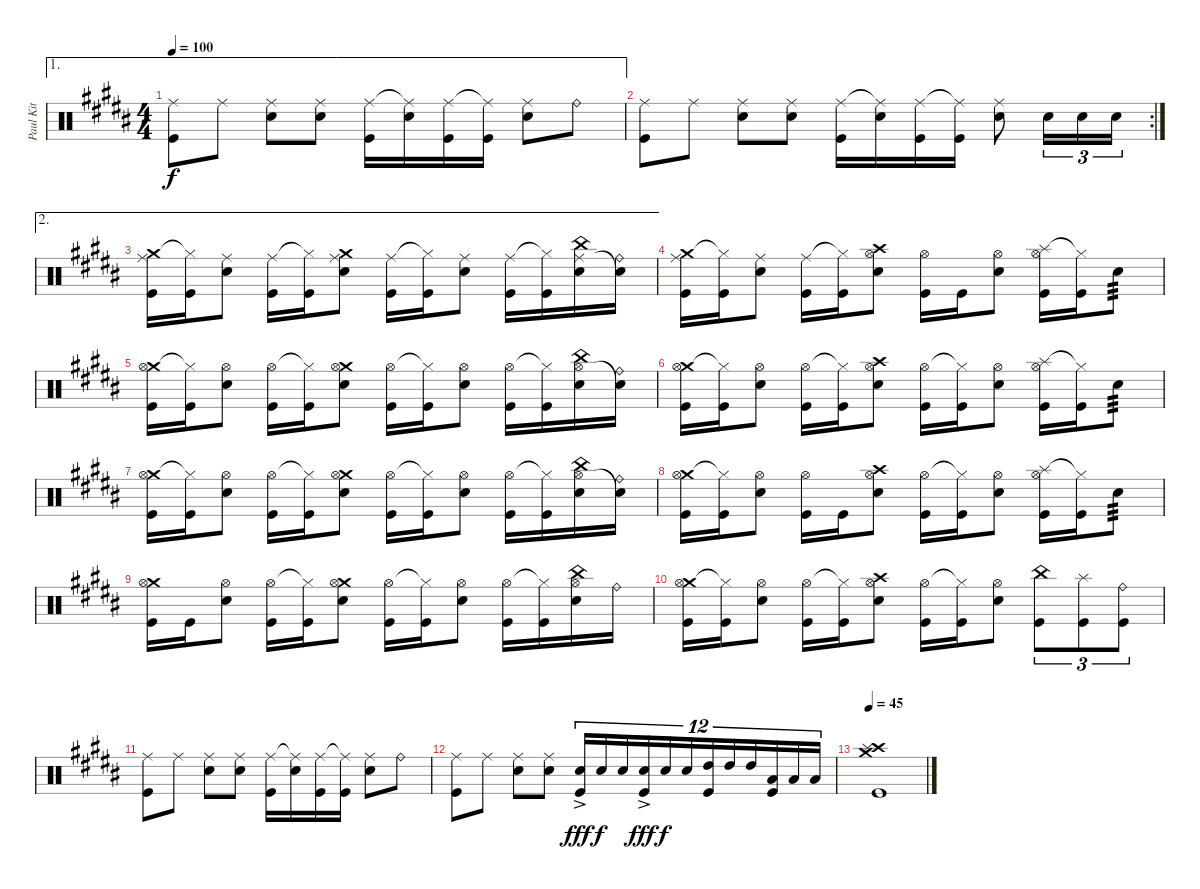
\track ("Paul Kit" "Paul Kit") {instrument percussion}
\staff {score}
\articulation defaults
\ae 1
\ts (4 4)
\tempo 100
\clef neutral
\ks b
("Ride (middle)" "Kick (hit)").8{dy f} "Ride (middle)".8 ("Ride (middle)" "Snare (hit) 2").8 ("Ride (middle)" "Snare (hit) 2").8 ("Ride (middle)" "Kick (hit)").16 ("Ride (middle)"{t} "Snare (hit) 2").16 ("Ride (middle)" "Kick (hit)").16 ("Ride (middle)"{t} "Kick (hit)").16 ("Ride (middle)" "Snare (hit) 2").8 "Ride (bell)".8 |
\rc 2
("Ride (middle)" "Kick (hit)").8 "Ride (middle)".8 ("Ride (middle)" "Snare (hit) 2").8 ("Ride (middle)" "Snare (hit) 2").8 ("Ride (middle)" "Kick (hit)").16 ("Ride (middle)"{t} "Snare (hit) 2").16 ("Ride (middle)" "Kick (hit)").16 ("Ride (middle)"{t} "Kick (hit)").16 ("Ride (middle)" "Snare (hit) 2").8 "Snare (hit) 2".16{tu (3 2)} "Snare (hit) 2".16{tu (3 2)} "Snare (hit) 2".16{tu (3 2)} |
\ae 2
("Crash medium (hit)" "Ride (middle)" "Kick (hit)").16 ("Hi-Hat (closed)"{t} "Kick (hit)").16 ("Ride (middle)" "Snare (hit) 2").8 ("Ride (middle)" "Kick (hit)").16 ("Hi-Hat (closed)"{t} "Kick (hit)").16 ("Crash medium (hit)" "Ride (middle)" "Snare (hit) 2").8 ("Ride (middle)" "Kick (hit)").16 ("Hi-Hat (closed)"{t} "Kick (hit)").16 ("Ride (middle)" "Snare (hit) 2").8 ("Ride (middle)" "Kick (hit)").16 ("Hi-Hat (closed)"{t} "Kick (hit)").16 ("China (hit)" "Ride (middle)" "Snare (hit) 2").16 ("Ride (bell)" "Snare (hit) 2"{t}).16 |
("Crash medium (hit)" "Ride (middle)" "Kick (hit)").16 ("Hi-Hat (closed)"{t} "Kick (hit)").16 ("Ride (middle)" "Snare (hit) 2").8 ("Ride (middle)" "Kick (hit)").16 ("Hi-Hat (closed)"{t} "Kick (hit)").16 ("Crash high (hit)" "Hi-Hat (open)" "Snare (hit) 2").8 ("Hi-Hat (open)" "Kick (hit)").16 "Kick (hit)".16 ("Hi-Hat (open)" "Snare (hit) 2").8 ("Splash (hit)" "Hi-Hat (open)" "Kick (hit)").16 ("Hi-Hat (closed)"{t} "Kick (hit)").16 "Snare (hit) 2".8{tp 3} |
("Crash medium (hit)" "Hi-Hat (open)" "Kick (hit)").16 ("Hi-Hat (closed)"{t} "Kick (hit)").16 ("Hi-Hat (open)" "Snare (hit) 2").8 ("Hi-Hat (open)" "Kick (hit)").16 ("Hi-Hat (closed)"{t} "Kick (hit)").16 ("Crash medium (hit)" "Hi-Hat (open)" "Snare (hit) 2").8 ("Hi-Hat (open)" "Kick (hit)").16 ("Hi-Hat (closed)"{t} "Kick (hit)").16 ("Hi-Hat (open)" "Snare (hit) 2").8 ("Hi-Hat (open)" "Kick (hit)").16 ("Hi-Hat (closed)"{t} "Kick (hit)").16 ("China (hit)" "Hi-Hat (open)" "Snare (hit) 2").16 ("Ride (bell)" "Snare (hit) 2"{t}).16 |
("Crash medium (hit)" "Hi-Hat (open)" "Kick (hit)").16 ("Hi-Hat (closed)"{t} "Kick (hit)").16 ("Hi-Hat (open)" "Snare (hit) 2").8 ("Hi-Hat (open)" "Kick (hit)").16 ("Hi-Hat (closed)"{t} "Kick (hit)").16 ("Crash high (hit)" "Hi-Hat (open)" "Snare (hit) 2").8 ("Hi-Hat (open)" "Kick (hit)").16 ("Hi-Hat (closed)"{t} "Kick (hit)").16 ("Hi-Hat (open)" "Snare (hit) 2").8 ("Splash (hit)" "Hi-Hat (open)" "Kick (hit)").16 ("Hi-Hat (closed)"{t} "Kick (hit)").16 "Snare (hit) 2".8{tp 3} |
("Crash medium (hit)" "Hi-Hat (open)" "Kick (hit)").16 ("Hi-Hat (closed)"{t} "Kick (hit)").16 ("Hi-Hat (open)" "Snare (hit) 2").8 ("Hi-Hat (open)" "Kick (hit)").16 ("Hi-Hat (closed)"{t} "Kick (hit)").16 ("Crash medium (hit)" "Hi-Hat (open)" "Snare (hit) 2").8 ("Hi-Hat (open)" "Kick (hit)").16 ("Hi-Hat (closed)"{t} "Kick (hit)").16 ("Hi-Hat (open)" "Snare (hit) 2").8 ("Hi-Hat (open)" "Kick (hit)").16 ("Hi-Hat (closed)"{t} "Kick (hit)").16 ("China (hit)" "Hi-Hat (open)" "Snare (hit) 2").16 ("Ride (bell)" "Snare (hit) 2"{t}).16 |
("Crash medium (hit)" "Hi-Hat (open)" "Kick (hit)").16 ("Hi-Hat (closed)"{t} "Kick (hit)").16 ("Hi-Hat (open)" "Snare (hit) 2").8 ("Hi-Hat (open)" "Kick (hit)").16 "Kick (hit)".16 ("Crash high (hit)" "Hi-Hat (open)" "Snare (hit) 2").8 ("Hi-Hat (open)" "Kick (hit)").16 ("Hi-Hat (closed)"{t} "Kick (hit)").16 ("Hi-Hat (open)" "Snare (hit) 2").8 ("Splash (hit)" "Hi-Hat (open)" "Kick (hit)").16 ("Hi-Hat (closed)"{t} "Kick (hit)").16 "Snare (hit) 2".8{tp 3} |
("Crash medium (hit)" "Hi-Hat (open)" "Kick (hit)").16 "Kick (hit)".16 ("Hi-Hat (open)" "Snare (hit) 2").8 ("Hi-Hat (open)" "Kick (hit)").16 ("Hi-Hat (closed)"{t} "Kick (hit)").16 ("Crash medium (hit)" "Hi-Hat (open)" "Snare (hit) 2").8 ("Hi-Hat (open)" "Kick (hit)").16 ("Hi-Hat (closed)"{t} "Kick (hit)").16 ("Hi-Hat (open)" "Snare (hit) 2").8 ("Hi-Hat (open)" "Kick (hit)").16 ("Hi-Hat (closed)"{t} "Kick (hit)").16 ("China (hit)" "Hi-Hat (open)" "Snare (hit) 2").16 "Ride (bell)".16 |
("Crash medium (hit)" "Hi-Hat (open)" "Kick (hit)").16 ("Hi-Hat (closed)"{t} "Kick (hit)").16 ("Hi-Hat (open)" "Snare (hit) 2").8 ("Hi-Hat (open)" "Kick (hit)").16 ("Hi-Hat (closed)"{t} "Kick (hit)").16 ("Crash high (hit)" "Hi-Hat (open)" "Snare (hit) 2").8 ("Hi-Hat (open)" "Kick (hit)").16 ("Hi-Hat (closed)"{t} "Kick (hit)").16 ("Hi-Hat (open)" "Snare (hit) 2").8 ("China (hit)" "Kick (hit)").8{tu (3 2)} ("Splash (hit)" "Kick (hit)").8{tu (3 2)} ("Ride (bell)" "Kick (hit)").8{tu (3 2)} |
("Ride (middle)" "Kick (hit)").8 "Ride (middle)".8 ("Ride (middle)" "Snare (hit) 2").8 ("Ride (middle)" "Snare (hit) 2").8 ("Ride (middle)" "Kick (hit)").16 ("Ride (middle)"{t} "Snare (hit) 2").16 ("Ride (middle)" "Kick (hit)").16 ("Ride (middle)"{t} "Kick (hit)").16 ("Ride (middle)" "Snare (hit) 2").8 "Ride (bell)".8 |
("Ride (middle)" "Kick (hit)").8 "Ride (middle)".8 ("Ride (middle)" "Snare (hit) 2").8 ("Ride (middle)" "Snare (hit) 2").8 ("Snare (hit) 2"{ac} "Kick (hit)").16{tu (12 8) dy fff} "Snare (hit) 2".16{tu (12 8) dy f} "Snare (hit) 2".16{tu (12 8)} ("Snare (hit) 2"{ac} "Kick (hit)").16{tu (12 8) dy fff} "Snare (hit) 2".16{tu (12 8) dy f} "Snare (hit) 2".16{tu (12 8)} ("High Tom (hit)" "Kick (hit)").16{tu (12 8)} "High Tom (hit)".16{tu (12 8)} "High Tom (hit)".16{tu (12 8)} ("Low Tom (hit)" "Kick (hit)").16{tu (12 8)} "Low Tom (hit)".16{tu (12 8)} "Low Tom (hit)".16{tu (12 8)} |
\tempo 45
("Crash high (hit)" "Crash medium (hit)" "Splash (hit)" "Kick (hit)").1
